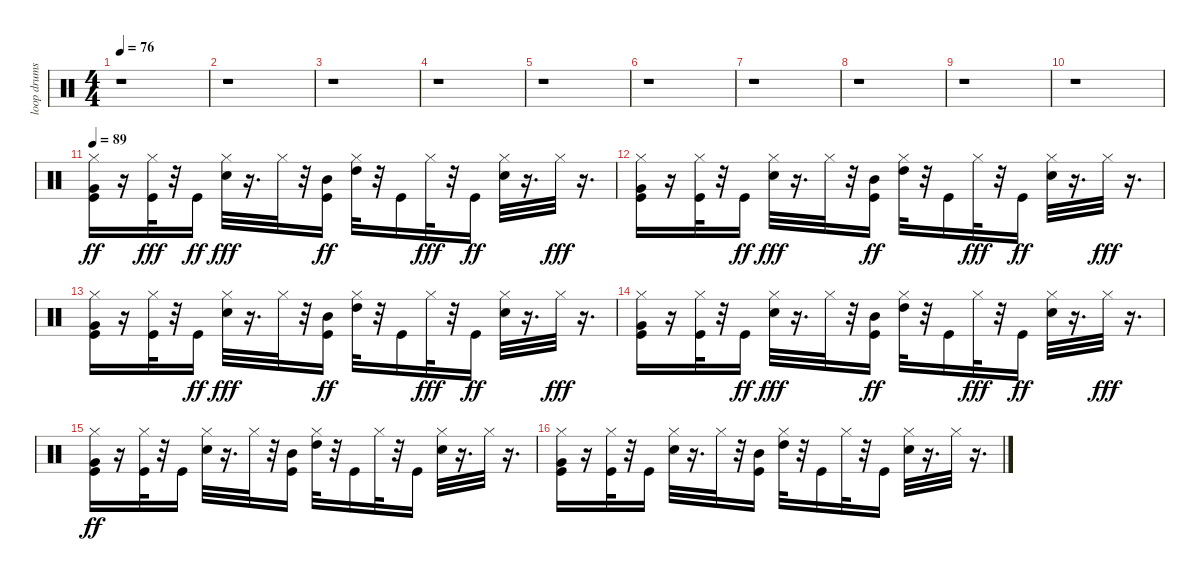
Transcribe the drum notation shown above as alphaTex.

\track ("loop drums" "loop drums") {instrument percussion}
\staff {score}
\articulation defaults
\ts (4 4)
\tempo 76
\clef neutral
\ks c
r.1{dy ff} |
r.1 |
r.1 |
r.1 |
r.1 |
r.1 |
r.1 |
r.1 |
r.1 |
r.1 |
\tempo 89
("Kick (hit)" "Hi-Hat (closed)" "Very Low Tom (hit)").16 r.16 ("Kick (hit)" "Hi-Hat (closed)").32{dy fff} r.32 "Kick (hit)".16{dy ff} ("Hi-Hat (closed)" "Electric Snare (hit)").32{dy fff} r.16{d} "Hi-Hat (closed)".32 r.32 ("Kick (hit)" "Mid Tom (hit)").16{dy ff} ("Hi-Hat (closed)" "High Tom (hit)").32 r.32 "Kick (hit)".16 "Hi-Hat (closed)".32{dy fff} r.32 "Kick (hit)".16{dy ff} ("Hi-Hat (closed)" "Electric Snare (hit)").32 r.16{d} "Hi-Hat (closed)".32{dy fff} r.16{d} |
("Very Low Tom (hit)" "Kick (hit)" "Hi-Hat (closed)").16 r.16 ("Kick (hit)" "Hi-Hat (closed)").32 r.32 "Kick (hit)".16{dy ff} ("Hi-Hat (closed)" "Electric Snare (hit)").32{dy fff} r.16{d} "Hi-Hat (closed)".32 r.32 ("Kick (hit)" "Mid Tom (hit)").16{dy ff} ("Hi-Hat (closed)" "High Tom (hit)").32 r.32 "Kick (hit)".16 "Hi-Hat (closed)".32{dy fff} r.32 "Kick (hit)".16{dy ff} ("Hi-Hat (closed)" "Electric Snare (hit)").32 r.16{d} "Hi-Hat (closed)".32{dy fff} r.16{d} |
("Very Low Tom (hit)" "Kick (hit)" "Hi-Hat (closed)").16 r.16 ("Kick (hit)" "Hi-Hat (closed)").32 r.32 "Kick (hit)".16{dy ff} ("Hi-Hat (closed)" "Electric Snare (hit)").32{dy fff} r.16{d} "Hi-Hat (closed)".32 r.32 ("Kick (hit)" "Mid Tom (hit)").16{dy ff} ("Hi-Hat (closed)" "High Tom (hit)").32 r.32 "Kick (hit)".16 "Hi-Hat (closed)".32{dy fff} r.32 "Kick (hit)".16{dy ff} ("Hi-Hat (closed)" "Electric Snare (hit)").32 r.16{d} "Hi-Hat (closed)".32{dy fff} r.16{d} |
("Very Low Tom (hit)" "Kick (hit)" "Hi-Hat (closed)").16 r.16 ("Kick (hit)" "Hi-Hat (closed)").32 r.32 "Kick (hit)".16{dy ff} ("Hi-Hat (closed)" "Electric Snare (hit)").32{dy fff} r.16{d} "Hi-Hat (closed)".32 r.32 ("Kick (hit)" "Mid Tom (hit)").16{dy ff} ("Hi-Hat (closed)" "High Tom (hit)").32 r.32 "Kick (hit)".16 "Hi-Hat (closed)".32{dy fff} r.32 "Kick (hit)".16{dy ff} ("Hi-Hat (closed)" "Electric Snare (hit)").32 r.16{d} "Hi-Hat (closed)".32{dy fff} r.16{d} |
("Kick (hit)" "Hi-Hat (closed)" "Very Low Tom (hit)").16{dy ff} r.16 ("Kick (hit)" "Hi-Hat (closed)").32 r.32 "Kick (hit)".16 ("Hi-Hat (closed)" "Electric Snare (hit)").32 r.16{d} "Hi-Hat (closed)".32 r.32 ("Kick (hit)" "Mid Tom (hit)").16 ("Hi-Hat (closed)" "High Tom (hit)").32 r.32 "Kick (hit)".16 "Hi-Hat (closed)".32 r.32 "Kick (hit)".16 ("Hi-Hat (closed)" "Electric Snare (hit)").32 r.16{d} "Hi-Hat (closed)".32 r.16{d} |
("Very Low Tom (hit)" "Kick (hit)" "Hi-Hat (closed)").16 r.16 ("Kick (hit)" "Hi-Hat (closed)").32 r.32 "Kick (hit)".16 ("Hi-Hat (closed)" "Electric Snare (hit)").32 r.16{d} "Hi-Hat (closed)".32 r.32 ("Kick (hit)" "Mid Tom (hit)").16 ("Hi-Hat (closed)" "High Tom (hit)").32 r.32 "Kick (hit)".16 "Hi-Hat (closed)".32 r.32 "Kick (hit)".16 ("Hi-Hat (closed)" "Electric Snare (hit)").32 r.16{d} "Hi-Hat (closed)".32 r.16{d}
